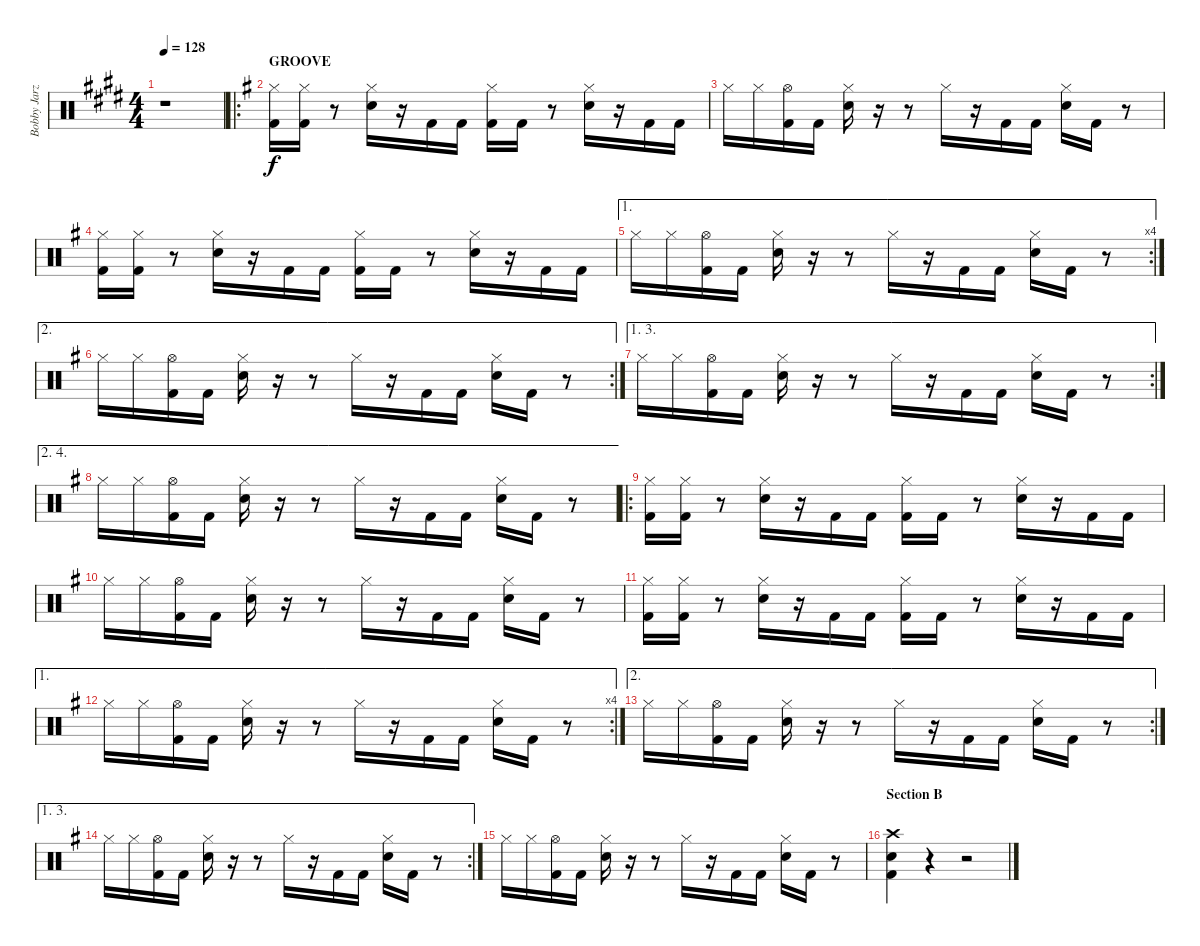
\track ("Bobby Jarzombek" "Bobby Jarz") {instrument percussion}
\staff {score}
\articulation defaults
\ts (4 4)
\tempo 128
\clef neutral
\ks c#minor
r.1{dy f} |
\ro
\section ("" "GROOVE")
\ks eminor
("Hi-Hat (closed)" "Kick (hit) 2").16 ("Hi-Hat (closed)" "Kick (hit) 2").16 r.8 ("Hi-Hat (closed)" "Electric Snare (hit)").16 r.16 "Kick (hit) 2".16 "Kick (hit) 2".16 ("Hi-Hat (closed)" "Kick (hit) 2").16 "Kick (hit) 2".16 r.8 ("Hi-Hat (closed)" "Electric Snare (hit)").16 r.16 "Kick (hit) 2".16 "Kick (hit) 2".16 |
"Hi-Hat (closed)".16 "Hi-Hat (closed)".16 ("Hi-Hat (open)" "Kick (hit) 2").16 "Kick (hit) 2".16 ("Hi-Hat (closed)" "Electric Snare (hit)").16 r.16 r.8 "Hi-Hat (closed)".16 r.16 "Kick (hit) 2".16 "Kick (hit) 2".16 ("Hi-Hat (closed)" "Electric Snare (hit)").16 "Kick (hit) 2".16 r.8 |
("Hi-Hat (closed)" "Kick (hit) 2").16 ("Hi-Hat (closed)" "Kick (hit) 2").16 r.8 ("Hi-Hat (closed)" "Electric Snare (hit)").16 r.16 "Kick (hit) 2".16 "Kick (hit) 2".16 ("Hi-Hat (closed)" "Kick (hit) 2").16 "Kick (hit) 2".16 r.8 ("Hi-Hat (closed)" "Electric Snare (hit)").16 r.16 "Kick (hit) 2".16 "Kick (hit) 2".16 |
\ae 1
\rc 4 "Hi-Hat (closed)".16 "Hi-Hat (closed)".16
("Hi-Hat (open)" "Kick (hit) 2").16 "Kick (hit) 2".16 ("Hi-Hat (closed)" "Electric Snare (hit)").16 r.16 r.8 "Hi-Hat (closed)".16 r.16 "Kick (hit) 2".16 "Kick (hit) 2".16 ("Hi-Hat (closed)" "Electric Snare (hit)").16 "Kick (hit) 2".16 r.8 |
\ae 2
\rc 2 "Hi-Hat (closed)".16 "Hi-Hat (closed)".16
("Hi-Hat (open)" "Kick (hit) 2").16 "Kick (hit) 2".16 ("Hi-Hat (closed)" "Electric Snare (hit)").16 r.16 r.8 "Hi-Hat (closed)".16 r.16 "Kick (hit) 2".16 "Kick (hit) 2".16 ("Hi-Hat (closed)" "Electric Snare (hit)").16 "Kick (hit) 2".16 r.8 |
\ae (1 3)
\rc 2 "Hi-Hat (closed)".16 "Hi-Hat (closed)".16
("Hi-Hat (open)" "Kick (hit) 2").16 "Kick (hit) 2".16 ("Hi-Hat (closed)" "Electric Snare (hit)").16 r.16 r.8 "Hi-Hat (closed)".16 r.16 "Kick (hit) 2".16 "Kick (hit) 2".16 ("Hi-Hat (closed)" "Electric Snare (hit)").16 "Kick (hit) 2".16 r.8 |
\ae (2 4)
"Hi-Hat (closed)".16 "Hi-Hat (closed)".16 ("Hi-Hat (open)" "Kick (hit) 2").16 "Kick (hit) 2".16 ("Hi-Hat (closed)" "Electric Snare (hit)").16 r.16 r.8 "Hi-Hat (closed)".16 r.16 "Kick (hit) 2".16 "Kick (hit) 2".16 ("Hi-Hat (closed)" "Electric Snare (hit)").16 "Kick (hit) 2".16 r.8 |
\ro
("Hi-Hat (closed)" "Kick (hit) 2").16 ("Hi-Hat (closed)" "Kick (hit) 2").16 r.8 ("Hi-Hat (closed)" "Electric Snare (hit)").16 r.16 "Kick (hit) 2".16 "Kick (hit) 2".16 ("Hi-Hat (closed)" "Kick (hit) 2").16 "Kick (hit) 2".16 r.8 ("Hi-Hat (closed)" "Electric Snare (hit)").16 r.16 "Kick (hit) 2".16 "Kick (hit) 2".16 |
"Hi-Hat (closed)".16 "Hi-Hat (closed)".16 ("Hi-Hat (open)" "Kick (hit) 2").16 "Kick (hit) 2".16 ("Hi-Hat (closed)" "Electric Snare (hit)").16 r.16 r.8 "Hi-Hat (closed)".16 r.16 "Kick (hit) 2".16 "Kick (hit) 2".16 ("Hi-Hat (closed)" "Electric Snare (hit)").16 "Kick (hit) 2".16 r.8 |
("Hi-Hat (closed)" "Kick (hit) 2").16 ("Hi-Hat (closed)" "Kick (hit) 2").16 r.8 ("Hi-Hat (closed)" "Electric Snare (hit)").16 r.16 "Kick (hit) 2".16 "Kick (hit) 2".16 ("Hi-Hat (closed)" "Kick (hit) 2").16 "Kick (hit) 2".16 r.8 ("Hi-Hat (closed)" "Electric Snare (hit)").16 r.16 "Kick (hit) 2".16 "Kick (hit) 2".16 |
\ae 1
\rc 4 "Hi-Hat (closed)".16 "Hi-Hat (closed)".16
("Hi-Hat (open)" "Kick (hit) 2").16 "Kick (hit) 2".16 ("Hi-Hat (closed)" "Electric Snare (hit)").16 r.16 r.8 "Hi-Hat (closed)".16 r.16 "Kick (hit) 2".16 "Kick (hit) 2".16 ("Hi-Hat (closed)" "Electric Snare (hit)").16 "Kick (hit) 2".16 r.8 |
\ae 2
\rc 2 "Hi-Hat (closed)".16 "Hi-Hat (closed)".16
("Hi-Hat (open)" "Kick (hit) 2").16 "Kick (hit) 2".16 ("Hi-Hat (closed)" "Electric Snare (hit)").16 r.16 r.8 "Hi-Hat (closed)".16 r.16 "Kick (hit) 2".16 "Kick (hit) 2".16 ("Hi-Hat (closed)" "Electric Snare (hit)").16 "Kick (hit) 2".16 r.8 |
\ae (1 3)
\rc 2 "Hi-Hat (closed)".16 "Hi-Hat (closed)".16
("Hi-Hat (open)" "Kick (hit) 2").16 "Kick (hit) 2".16 ("Hi-Hat (closed)" "Electric Snare (hit)").16 r.16 r.8 "Hi-Hat (closed)".16 r.16 "Kick (hit) 2".16 "Kick (hit) 2".16 ("Hi-Hat (closed)" "Electric Snare (hit)").16 "Kick (hit) 2".16 r.8 |
"Hi-Hat (closed)".16 "Hi-Hat (closed)".16 ("Hi-Hat (open)" "Kick (hit) 2").16 "Kick (hit) 2".16 ("Hi-Hat (closed)" "Electric Snare (hit)").16 r.16 r.8 "Hi-Hat (closed)".16 r.16 "Kick (hit) 2".16 "Kick (hit) 2".16 ("Hi-Hat (closed)" "Electric Snare (hit)").16 "Kick (hit) 2".16 r.8 |
\section ("" "Section B")
("Crash high (hit)" "Electric Snare (hit)" "Kick (hit) 2").4 r.4 r.2
